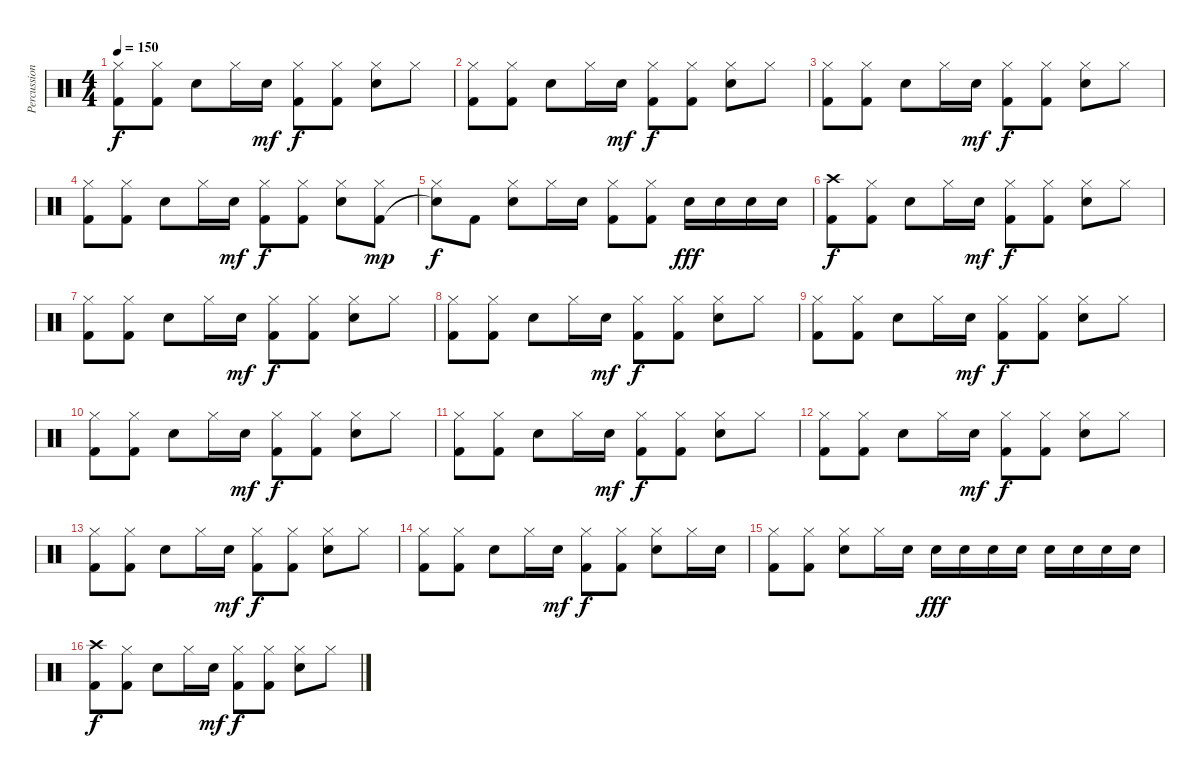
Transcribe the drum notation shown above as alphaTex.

\track ("Percussion" "Percussion") {instrument percussion}
\staff {score}
\articulation defaults
\ts (4 4)
\tempo 150
\clef neutral
\ks c
("Kick (hit) 2" "Hi-Hat (closed)").8{dy f} ("Kick (hit) 2" "Hi-Hat (closed)").8 "Electric Snare (hit)".8 "Hi-Hat (closed)".16 "Electric Snare (hit)".16{dy mf} ("Kick (hit) 2" "Hi-Hat (closed)").8{dy f} ("Kick (hit) 2" "Hi-Hat (closed)").8 ("Electric Snare (hit)" "Hi-Hat (closed)").8 "Hi-Hat (closed)".8 |
("Kick (hit) 2" "Hi-Hat (closed)").8 ("Kick (hit) 2" "Hi-Hat (closed)").8 "Electric Snare (hit)".8 "Hi-Hat (closed)".16 "Electric Snare (hit)".16{dy mf} ("Kick (hit) 2" "Hi-Hat (closed)").8{dy f} ("Kick (hit) 2" "Hi-Hat (closed)").8 ("Electric Snare (hit)" "Hi-Hat (closed)").8 "Hi-Hat (closed)".8 |
("Kick (hit) 2" "Hi-Hat (closed)").8 ("Kick (hit) 2" "Hi-Hat (closed)").8 "Electric Snare (hit)".8 "Hi-Hat (closed)".16 "Electric Snare (hit)".16{dy mf} ("Kick (hit) 2" "Hi-Hat (closed)").8{dy f} ("Kick (hit) 2" "Hi-Hat (closed)").8 ("Electric Snare (hit)" "Hi-Hat (closed)").8 "Hi-Hat (closed)".8 |
("Kick (hit) 2" "Hi-Hat (closed)").8 ("Kick (hit) 2" "Hi-Hat (closed)").8 "Electric Snare (hit)".8 "Hi-Hat (closed)".16 "Electric Snare (hit)".16{dy mf} ("Kick (hit) 2" "Hi-Hat (closed)").8{dy f} ("Kick (hit) 2" "Hi-Hat (closed)").8 ("Electric Snare (hit)" "Hi-Hat (closed)").8 ("Kick (hit) 2" "Hi-Hat (closed)").8{dy mp} |
("Snare (hit)"{t} "Hi-Hat (closed)").8{dy f} "Kick (hit) 2".8 ("Electric Snare (hit)" "Hi-Hat (closed)").8 "Hi-Hat (closed)".16 "Electric Snare (hit)".16 ("Hi-Hat (closed)" "Kick (hit) 2").8 ("Hi-Hat (closed)" "Kick (hit) 2").8 "Snare (hit) 2".16{dy fff} "Snare (hit) 2".16 "Snare (hit) 2".16 "Snare (hit) 2".16 |
("Kick (hit) 2" "Crash high (hit)").8{dy f} ("Kick (hit) 2" "Hi-Hat (closed)").8 "Electric Snare (hit)".8 "Hi-Hat (closed)".16 "Electric Snare (hit)".16{dy mf} ("Kick (hit) 2" "Hi-Hat (closed)").8{dy f} ("Kick (hit) 2" "Hi-Hat (closed)").8 ("Electric Snare (hit)" "Hi-Hat (closed)").8 "Hi-Hat (closed)".8 |
("Kick (hit) 2" "Hi-Hat (closed)").8 ("Kick (hit) 2" "Hi-Hat (closed)").8 "Electric Snare (hit)".8 "Hi-Hat (closed)".16 "Electric Snare (hit)".16{dy mf} ("Kick (hit) 2" "Hi-Hat (closed)").8{dy f} ("Kick (hit) 2" "Hi-Hat (closed)").8 ("Electric Snare (hit)" "Hi-Hat (closed)").8 "Hi-Hat (closed)".8 |
("Kick (hit) 2" "Hi-Hat (closed)").8 ("Kick (hit) 2" "Hi-Hat (closed)").8 "Electric Snare (hit)".8 "Hi-Hat (closed)".16 "Electric Snare (hit)".16{dy mf} ("Kick (hit) 2" "Hi-Hat (closed)").8{dy f} ("Kick (hit) 2" "Hi-Hat (closed)").8 ("Electric Snare (hit)" "Hi-Hat (closed)").8 "Hi-Hat (closed)".8 |
("Kick (hit) 2" "Hi-Hat (closed)").8 ("Kick (hit) 2" "Hi-Hat (closed)").8 "Electric Snare (hit)".8 "Hi-Hat (closed)".16 "Electric Snare (hit)".16{dy mf} ("Kick (hit) 2" "Hi-Hat (closed)").8{dy f} ("Kick (hit) 2" "Hi-Hat (closed)").8 ("Electric Snare (hit)" "Hi-Hat (closed)").8 "Hi-Hat (closed)".8 |
("Kick (hit) 2" "Hi-Hat (closed)").8 ("Kick (hit) 2" "Hi-Hat (closed)").8 "Electric Snare (hit)".8 "Hi-Hat (closed)".16 "Electric Snare (hit)".16{dy mf} ("Kick (hit) 2" "Hi-Hat (closed)").8{dy f} ("Kick (hit) 2" "Hi-Hat (closed)").8 ("Electric Snare (hit)" "Hi-Hat (closed)").8 "Hi-Hat (closed)".8 |
("Kick (hit) 2" "Hi-Hat (closed)").8 ("Kick (hit) 2" "Hi-Hat (closed)").8 "Electric Snare (hit)".8 "Hi-Hat (closed)".16 "Electric Snare (hit)".16{dy mf} ("Kick (hit) 2" "Hi-Hat (closed)").8{dy f} ("Kick (hit) 2" "Hi-Hat (closed)").8 ("Electric Snare (hit)" "Hi-Hat (closed)").8 "Hi-Hat (closed)".8 |
("Kick (hit) 2" "Hi-Hat (closed)").8 ("Kick (hit) 2" "Hi-Hat (closed)").8 "Electric Snare (hit)".8 "Hi-Hat (closed)".16 "Electric Snare (hit)".16{dy mf} ("Kick (hit) 2" "Hi-Hat (closed)").8{dy f} ("Kick (hit) 2" "Hi-Hat (closed)").8 ("Electric Snare (hit)" "Hi-Hat (closed)").8 "Hi-Hat (closed)".8 |
("Kick (hit) 2" "Hi-Hat (closed)").8 ("Kick (hit) 2" "Hi-Hat (closed)").8 "Electric Snare (hit)".8 "Hi-Hat (closed)".16 "Electric Snare (hit)".16{dy mf} ("Kick (hit) 2" "Hi-Hat (closed)").8{dy f} ("Kick (hit) 2" "Hi-Hat (closed)").8 ("Electric Snare (hit)" "Hi-Hat (closed)").8 "Hi-Hat (closed)".8 |
("Kick (hit) 2" "Hi-Hat (closed)").8 ("Kick (hit) 2" "Hi-Hat (closed)").8 "Electric Snare (hit)".8 "Hi-Hat (closed)".16 "Electric Snare (hit)".16{dy mf} ("Kick (hit) 2" "Hi-Hat (closed)").8{dy f} ("Kick (hit) 2" "Hi-Hat (closed)").8 ("Electric Snare (hit)" "Hi-Hat (closed)").8 "Hi-Hat (closed)".16 "Electric Snare (hit)".16 |
("Kick (hit) 2" "Hi-Hat (closed)").8 ("Kick (hit) 2" "Hi-Hat (closed)").8 ("Electric Snare (hit)" "Hi-Hat (closed)").8 "Hi-Hat (closed)".16 "Snare (hit) 2".16 "Snare (hit) 2".16{dy fff} "Snare (hit) 2".16 "Snare (hit) 2".16 "Snare (hit) 2".16 "Snare (hit) 2".16 "Snare (hit) 2".16 "Snare (hit) 2".16 "Snare (hit) 2".16 |
("Kick (hit) 2" "Crash high (hit)").8{dy f} ("Kick (hit) 2" "Hi-Hat (closed)").8 "Electric Snare (hit)".8 "Hi-Hat (closed)".16 "Electric Snare (hit)".16{dy mf} ("Kick (hit) 2" "Hi-Hat (closed)").8{dy f} ("Kick (hit) 2" "Hi-Hat (closed)").8 ("Electric Snare (hit)" "Hi-Hat (closed)").8 "Hi-Hat (closed)".8
